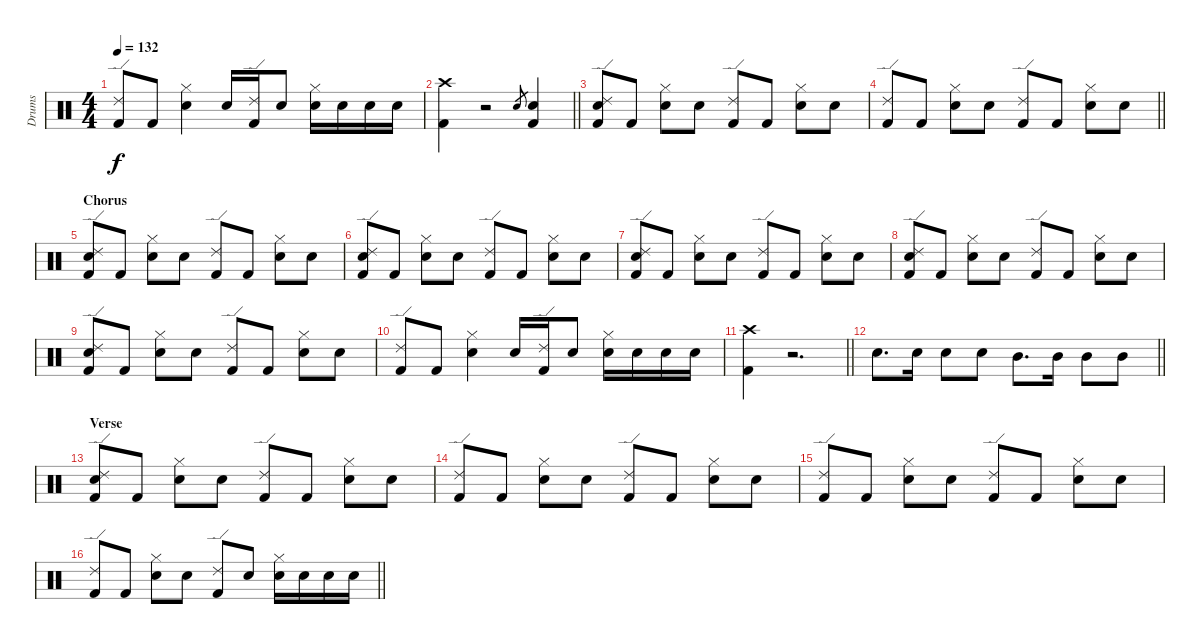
\track ("Drums" "Drums") {instrument percussion}
\staff {score}
\articulation defaults
\ts (4 4)
\tempo 132
\clef neutral
\ks c
("Ride (edge) 2" "Kick (hit) 2").8{dy f} "Kick (hit) 2".8 ("Hi-Hat (closed)" "Snare (hit) 2").4 "Snare (hit) 2".16 ("Ride (edge) 2" "Kick (hit) 2").16 "Snare (hit) 2".8 ("Hi-Hat (closed)" "Snare (hit) 2").16 "Snare (hit) 2".16 "Snare (hit) 2".16 "Snare (hit) 2".16 |
\barLineRight lightlight
("Crash high (hit)" "Kick (hit) 2").4{volume 9} r.2 "Snare (hit) 2".8{gr} ("Snare (hit) 2" "Kick (hit) 2").4 |
("Ride (edge) 2" "Snare (hit) 2" "Kick (hit) 2").8{volume 9} "Kick (hit) 2".8 ("Hi-Hat (closed)" "Snare (hit) 2").8 "Snare (hit) 2".8 ("Ride (edge) 2" "Kick (hit) 2").8 "Kick (hit) 2".8 ("Hi-Hat (closed)" "Snare (hit) 2").8 "Snare (hit) 2".8 |
\barLineRight lightlight
("Ride (edge) 2" "Kick (hit) 2").8 "Kick (hit) 2".8 ("Hi-Hat (closed)" "Snare (hit) 2").8 "Snare (hit) 2".8 ("Ride (edge) 2" "Kick (hit) 2").8 "Kick (hit) 2".8 ("Hi-Hat (closed)" "Snare (hit) 2").8 "Snare (hit) 2".8 |
\section ("" "Chorus")
("Ride (edge) 2" "Snare (hit) 2" "Kick (hit) 2").8{volume 9} "Kick (hit) 2".8 ("Hi-Hat (closed)" "Snare (hit) 2").8 "Snare (hit) 2".8 ("Ride (edge) 2" "Kick (hit) 2").8 "Kick (hit) 2".8 ("Hi-Hat (closed)" "Snare (hit) 2").8 "Snare (hit) 2".8 |
("Ride (edge) 2" "Snare (hit) 2" "Kick (hit) 2").8{volume 9} "Kick (hit) 2".8 ("Hi-Hat (closed)" "Snare (hit) 2").8 "Snare (hit) 2".8 ("Ride (edge) 2" "Kick (hit) 2").8 "Kick (hit) 2".8 ("Hi-Hat (closed)" "Snare (hit) 2").8 "Snare (hit) 2".8 |
("Ride (edge) 2" "Snare (hit) 2" "Kick (hit) 2").8{volume 9} "Kick (hit) 2".8 ("Hi-Hat (closed)" "Snare (hit) 2").8 "Snare (hit) 2".8 ("Ride (edge) 2" "Kick (hit) 2").8 "Kick (hit) 2".8 ("Hi-Hat (closed)" "Snare (hit) 2").8 "Snare (hit) 2".8 |
("Ride (edge) 2" "Snare (hit) 2" "Kick (hit) 2").8{volume 9} "Kick (hit) 2".8 ("Hi-Hat (closed)" "Snare (hit) 2").8 "Snare (hit) 2".8 ("Ride (edge) 2" "Kick (hit) 2").8 "Kick (hit) 2".8 ("Hi-Hat (closed)" "Snare (hit) 2").8 "Snare (hit) 2".8 |
("Ride (edge) 2" "Snare (hit) 2" "Kick (hit) 2").8{volume 9} "Kick (hit) 2".8 ("Hi-Hat (closed)" "Snare (hit) 2").8 "Snare (hit) 2".8 ("Ride (edge) 2" "Kick (hit) 2").8 "Kick (hit) 2".8 ("Hi-Hat (closed)" "Snare (hit) 2").8 "Snare (hit) 2".8 |
("Ride (edge) 2" "Kick (hit) 2").8 "Kick (hit) 2".8 ("Hi-Hat (closed)" "Snare (hit) 2").4 "Snare (hit) 2".16 ("Ride (edge) 2" "Kick (hit) 2").16 "Snare (hit) 2".8 ("Hi-Hat (closed)" "Snare (hit) 2").16 "Snare (hit) 2".16 "Snare (hit) 2".16 "Snare (hit) 2".16 |
\barLineRight lightlight
("Crash high (hit)" "Kick (hit) 2").4{volume 9} r.2{d} |
\barLineRight lightlight "Snare (hit) 2".8{d} "Snare (hit) 2".16 "Snare (hit) 2".8 "Snare (hit) 2".8 "Mid Tom (hit)".8{d} "Mid Tom (hit)".16 "Mid Tom (hit)".8 "Mid Tom (hit)".8
|
\section ("" "Verse")
("Ride (edge) 2" "Snare (hit) 2" "Kick (hit) 2").8{volume 9} "Kick (hit) 2".8 ("Hi-Hat (closed)" "Snare (hit) 2").8 "Snare (hit) 2".8 ("Ride (edge) 2" "Kick (hit) 2").8 "Kick (hit) 2".8 ("Hi-Hat (closed)" "Snare (hit) 2").8 "Snare (hit) 2".8 |
("Ride (edge) 2" "Kick (hit) 2").8 "Kick (hit) 2".8 ("Hi-Hat (closed)" "Snare (hit) 2").8 "Snare (hit) 2".8 ("Ride (edge) 2" "Kick (hit) 2").8 "Kick (hit) 2".8 ("Hi-Hat (closed)" "Snare (hit) 2").8 "Snare (hit) 2".8 |
("Ride (edge) 2" "Kick (hit) 2").8 "Kick (hit) 2".8 ("Hi-Hat (closed)" "Snare (hit) 2").8 "Snare (hit) 2".8 ("Ride (edge) 2" "Kick (hit) 2").8 "Kick (hit) 2".8 ("Hi-Hat (closed)" "Snare (hit) 2").8 "Snare (hit) 2".8 |
\barLineRight lightlight
("Ride (edge) 2" "Kick (hit) 2").8 "Kick (hit) 2".8 ("Hi-Hat (closed)" "Snare (hit) 2").8 "Snare (hit) 2".8 ("Ride (edge) 2" "Kick (hit) 2").8 "Snare (hit) 2".8 ("Hi-Hat (closed)" "Snare (hit) 2").16 "Snare (hit) 2".16 "Snare (hit) 2".16 "Snare (hit) 2".16
